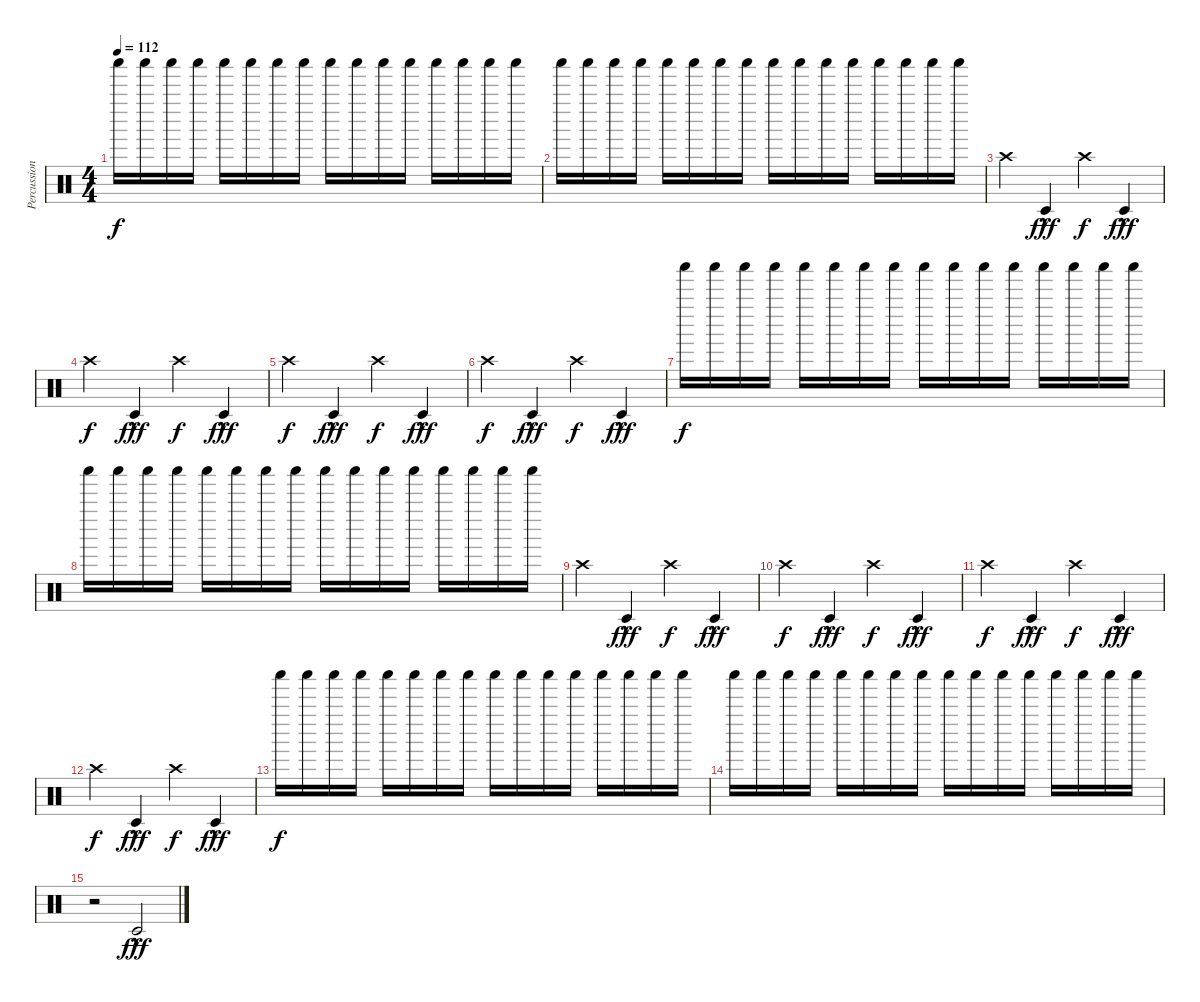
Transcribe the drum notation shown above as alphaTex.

\track ("Percussion" "Percussion") {instrument percussion}
\staff {score}
\articulation defaults
\ts (4 4)
\tempo 112
\clef neutral
\ks c "Shaker (hit)".16{dy f} "Shaker (hit)".16 "Shaker (hit)".16 "Shaker (hit)".16 "Shaker (hit)".16 "Shaker (hit)".16 "Shaker (hit)".16 "Shaker (hit)".16 "Shaker (hit)".16 "Shaker (hit)".16 "Shaker (hit)".16 "Shaker (hit)".16 "Shaker (hit)".16 "Shaker (hit)".16 "Shaker (hit)".16 "Shaker (hit)".16
|
"Shaker (hit)".16 "Shaker (hit)".16 "Shaker (hit)".16 "Shaker (hit)".16 "Shaker (hit)".16 "Shaker (hit)".16 "Shaker (hit)".16 "Shaker (hit)".16 "Shaker (hit)".16 "Shaker (hit)".16 "Shaker (hit)".16 "Shaker (hit)".16 "Shaker (hit)".16 "Shaker (hit)".16 "Shaker (hit)".16 "Shaker (hit)".16 |
"Crash high (hit)".4 "Timbale low (hit)"{hac}.4{dy fff} "Crash high (hit)".4{dy f} "Timbale low (hit)"{hac}.4{dy fff} |
"Crash high (hit)".4{dy f} "Timbale low (hit)"{hac}.4{dy fff} "Crash high (hit)".4{dy f} "Timbale low (hit)"{hac}.4{dy fff} |
"Crash high (hit)".4{dy f} "Timbale low (hit)"{hac}.4{dy fff} "Crash high (hit)".4{dy f} "Timbale low (hit)"{hac}.4{dy fff} |
"Crash high (hit)".4{dy f} "Timbale low (hit)"{hac}.4{dy fff} "Crash high (hit)".4{dy f} "Timbale low (hit)"{hac}.4{dy fff} |
"Shaker (hit)".16{dy f} "Shaker (hit)".16 "Shaker (hit)".16 "Shaker (hit)".16 "Shaker (hit)".16 "Shaker (hit)".16 "Shaker (hit)".16 "Shaker (hit)".16 "Shaker (hit)".16 "Shaker (hit)".16 "Shaker (hit)".16 "Shaker (hit)".16 "Shaker (hit)".16 "Shaker (hit)".16 "Shaker (hit)".16 "Shaker (hit)".16 |
"Shaker (hit)".16 "Shaker (hit)".16 "Shaker (hit)".16 "Shaker (hit)".16 "Shaker (hit)".16 "Shaker (hit)".16 "Shaker (hit)".16 "Shaker (hit)".16 "Shaker (hit)".16 "Shaker (hit)".16 "Shaker (hit)".16 "Shaker (hit)".16 "Shaker (hit)".16 "Shaker (hit)".16 "Shaker (hit)".16 "Shaker (hit)".16 |
"Crash high (hit)".4 "Timbale low (hit)"{hac}.4{dy fff} "Crash high (hit)".4{dy f} "Timbale low (hit)"{hac}.4{dy fff} |
"Crash high (hit)".4{dy f} "Timbale low (hit)"{hac}.4{dy fff} "Crash high (hit)".4{dy f} "Timbale low (hit)"{hac}.4{dy fff} |
"Crash high (hit)".4{dy f} "Timbale low (hit)"{hac}.4{dy fff} "Crash high (hit)".4{dy f} "Timbale low (hit)"{hac}.4{dy fff} |
"Crash high (hit)".4{dy f} "Timbale low (hit)"{hac}.4{dy fff} "Crash high (hit)".4{dy f} "Timbale low (hit)"{hac}.4{dy fff} |
"Shaker (hit)".16{dy f} "Shaker (hit)".16 "Shaker (hit)".16 "Shaker (hit)".16 "Shaker (hit)".16 "Shaker (hit)".16 "Shaker (hit)".16 "Shaker (hit)".16 "Shaker (hit)".16 "Shaker (hit)".16 "Shaker (hit)".16 "Shaker (hit)".16 "Shaker (hit)".16 "Shaker (hit)".16 "Shaker (hit)".16 "Shaker (hit)".16 |
"Shaker (hit)".16 "Shaker (hit)".16 "Shaker (hit)".16 "Shaker (hit)".16 "Shaker (hit)".16 "Shaker (hit)".16 "Shaker (hit)".16 "Shaker (hit)".16 "Shaker (hit)".16 "Shaker (hit)".16 "Shaker (hit)".16 "Shaker (hit)".16 "Shaker (hit)".16 "Shaker (hit)".16 "Shaker (hit)".16 "Shaker (hit)".16 |
r.2 "Timbale low (hit)"{hac}.2{dy fff}
